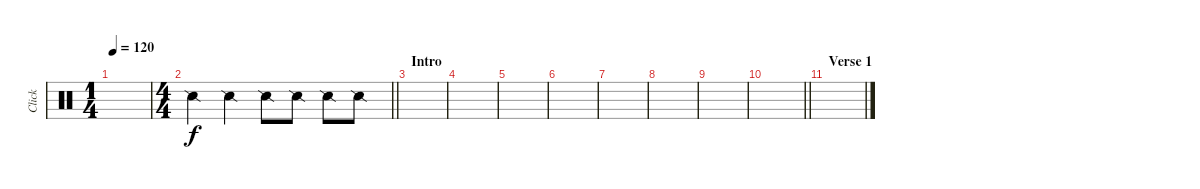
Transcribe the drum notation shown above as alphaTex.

\track ("Click" "Click") {instrument percussion}
\staff {score}
\articulation defaults
\ts (1 4)
\tempo 120
\clef neutral
\ks c
|
\ts (4 4)
\barLineRight lightlight "Snare (side stick) 2".4 "Snare (side stick) 2".4 "Snare (side stick) 2".8 "Snare (side stick) 2".8 "Snare (side stick) 2".8 "Snare (side stick) 2".8
|
\section ("" "Intro")
|
|
|
|
|
|
|
\barLineRight lightlight
|
\section ("" "Verse 1")
